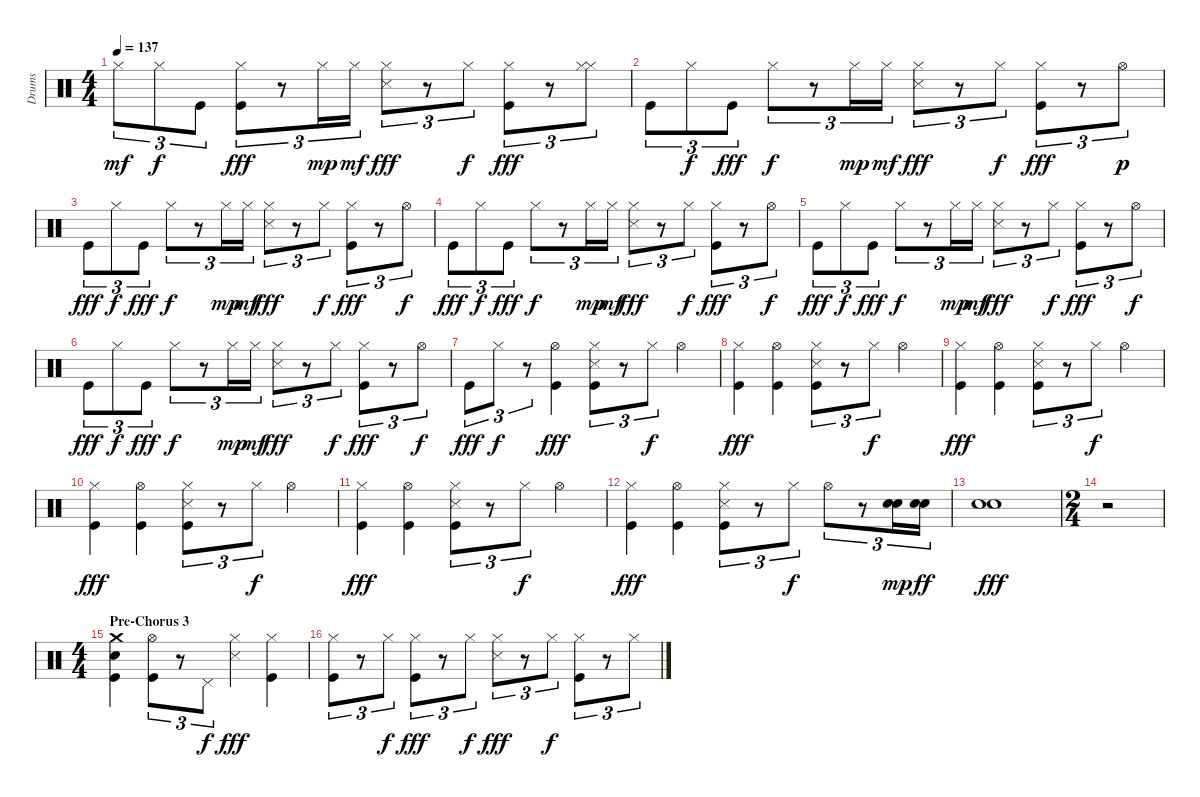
\track ("Drums" "Drums") {instrument percussion}
\staff {score}
\articulation defaults
\ts (4 4)
\tempo 137
\clef neutral
\ks c "Hi-Hat (closed)".8{tu (3 2) dy mf} "Hi-Hat (closed)".8{tu (3 2) dy f} "Kick (hit)".8{tu (3 2)}
("Hi-Hat (closed)" "Kick (hit)").8{tu (3 2) dy fff} r.8{tu (3 2)} "Hi-Hat (closed)".16{tu (3 2) dy mp} "Hi-Hat (closed)".16{tu (3 2) dy mf} ("Hi-Hat (closed)" "Snare (side stick) 3").8{tu (3 2) dy fff} r.8{tu (3 2)} "Hi-Hat (closed)".8{tu (3 2) dy f} ("Hi-Hat (closed)" "Kick (hit)").8{tu (3 2) dy fff} r.8{tu (3 2)} ("Hi-Hat (closed)" "Hi-Hat (closed)").8{tu (3 2)} |
"Kick (hit)".8{tu (3 2)} "Hi-Hat (closed)".8{tu (3 2) dy f} "Kick (hit)".8{tu (3 2) dy fff} "Hi-Hat (closed)".8{tu (3 2) dy f} r.8{tu (3 2)} "Hi-Hat (closed)".16{tu (3 2) dy mp} "Hi-Hat (closed)".16{tu (3 2) dy mf} ("Hi-Hat (closed)" "Snare (side stick) 3").8{tu (3 2) dy fff} r.8{tu (3 2)} "Hi-Hat (closed)".8{tu (3 2) dy f} ("Hi-Hat (closed)" "Kick (hit)").8{tu (3 2) dy fff} r.8{tu (3 2)} "Hi-Hat (open)".8{tu (3 2) dy p} |
"Kick (hit)".8{tu (3 2) dy fff} "Hi-Hat (closed)".8{tu (3 2) dy f} "Kick (hit)".8{tu (3 2) dy fff} "Hi-Hat (closed)".8{tu (3 2) dy f} r.8{tu (3 2)} "Hi-Hat (closed)".16{tu (3 2) dy mp} "Hi-Hat (closed)".16{tu (3 2) dy mf} ("Hi-Hat (closed)" "Snare (side stick) 3").8{tu (3 2) dy fff} r.8{tu (3 2)} "Hi-Hat (closed)".8{tu (3 2) dy f} ("Hi-Hat (closed)" "Kick (hit)").8{tu (3 2) dy fff} r.8{tu (3 2)} "Hi-Hat (open)".8{tu (3 2) dy f} |
"Kick (hit)".8{tu (3 2) dy fff} "Hi-Hat (closed)".8{tu (3 2) dy f} "Kick (hit)".8{tu (3 2) dy fff} "Hi-Hat (closed)".8{tu (3 2) dy f} r.8{tu (3 2)} "Hi-Hat (closed)".16{tu (3 2) dy mp} "Hi-Hat (closed)".16{tu (3 2) dy mf} ("Hi-Hat (closed)" "Snare (side stick) 3").8{tu (3 2) dy fff} r.8{tu (3 2)} "Hi-Hat (closed)".8{tu (3 2) dy f} ("Hi-Hat (closed)" "Kick (hit)").8{tu (3 2) dy fff} r.8{tu (3 2)} "Hi-Hat (open)".8{tu (3 2) dy f} |
"Kick (hit)".8{tu (3 2) dy fff} "Hi-Hat (closed)".8{tu (3 2) dy f} "Kick (hit)".8{tu (3 2) dy fff} "Hi-Hat (closed)".8{tu (3 2) dy f} r.8{tu (3 2)} "Hi-Hat (closed)".16{tu (3 2) dy mp} "Hi-Hat (closed)".16{tu (3 2) dy mf} ("Hi-Hat (closed)" "Snare (side stick) 3").8{tu (3 2) dy fff} r.8{tu (3 2)} "Hi-Hat (closed)".8{tu (3 2) dy f} ("Hi-Hat (closed)" "Kick (hit)").8{tu (3 2) dy fff} r.8{tu (3 2)} "Hi-Hat (open)".8{tu (3 2) dy f} |
"Kick (hit)".8{tu (3 2) dy fff} "Hi-Hat (closed)".8{tu (3 2) dy f} "Kick (hit)".8{tu (3 2) dy fff} "Hi-Hat (closed)".8{tu (3 2) dy f} r.8{tu (3 2)} "Hi-Hat (closed)".16{tu (3 2) dy mp} "Hi-Hat (closed)".16{tu (3 2) dy mf} ("Hi-Hat (closed)" "Snare (side stick) 3").8{tu (3 2) dy fff} r.8{tu (3 2)} "Hi-Hat (closed)".8{tu (3 2) dy f} ("Hi-Hat (closed)" "Kick (hit)").8{tu (3 2) dy fff} r.8{tu (3 2)} "Hi-Hat (open)".8{tu (3 2) dy f} |
"Kick (hit)".8{tu (3 2) dy fff} "Hi-Hat (closed)".8{tu (3 2) dy f} r.8{tu (3 2)} ("Hi-Hat (open)" "Kick (hit)").4{dy fff} ("Hi-Hat (closed)" "Snare (side stick) 3" "Kick (hit)").8{tu (3 2)} r.8{tu (3 2)} "Hi-Hat (closed)".8{tu (3 2) dy f} "Hi-Hat (open)".4 |
("Hi-Hat (closed)" "Kick (hit)").4{dy fff} ("Hi-Hat (open)" "Kick (hit)").4 ("Hi-Hat (closed)" "Snare (side stick) 3" "Kick (hit)").8{tu (3 2)} r.8{tu (3 2)} "Hi-Hat (closed)".8{tu (3 2) dy f} "Hi-Hat (open)".4 |
("Hi-Hat (closed)" "Kick (hit)").4{dy fff} ("Hi-Hat (open)" "Kick (hit)").4 ("Hi-Hat (closed)" "Snare (side stick) 3" "Kick (hit)").8{tu (3 2)} r.8{tu (3 2)} "Hi-Hat (closed)".8{tu (3 2) dy f} "Hi-Hat (open)".4 |
("Hi-Hat (closed)" "Kick (hit)").4{dy fff} ("Hi-Hat (open)" "Kick (hit)").4 ("Hi-Hat (closed)" "Snare (side stick) 3" "Kick (hit)").8{tu (3 2)} r.8{tu (3 2)} "Hi-Hat (closed)".8{tu (3 2) dy f} "Hi-Hat (open)".4 |
("Hi-Hat (closed)" "Kick (hit)").4{dy fff} ("Hi-Hat (open)" "Kick (hit)").4 ("Hi-Hat (closed)" "Snare (side stick) 3" "Kick (hit)").8{tu (3 2)} r.8{tu (3 2)} "Hi-Hat (closed)".8{tu (3 2) dy f} "Hi-Hat (open)".4 |
("Hi-Hat (closed)" "Kick (hit)").4{dy fff} ("Hi-Hat (open)" "Kick (hit)").4 ("Hi-Hat (closed)" "Snare (side stick) 3" "Kick (hit)").8{tu (3 2)} r.8{tu (3 2)} "Hi-Hat (closed)".8{tu (3 2) dy f} "Hi-Hat (open)".8{tu (3 2)} r.8{tu (3 2)} ("Snare (hit) 2" "Electric Snare (hit)").16{tu (3 2) dy mp volume 16} ("Snare (hit) 2" "Electric Snare (hit)").16{tu (3 2) dy ff} |
("Snare (hit) 2" "Electric Snare (hit)").1{dy fff} |
\ts (2 4)
r.2 |
\ts (4 4)
\section ("" "Pre-Chorus 3")
("Crash medium (hit)" "Snare (hit) 2" "Kick (hit)").4 ("Hi-Hat (open)" "Kick (hit)").8{tu (3 2) volume 10} r.8{tu (3 2)} "Pedal Hi-Hat (hit)".8{tu (3 2) dy f} ("Hi-Hat (closed)" "Snare (side stick) 3").4{dy fff} ("Hi-Hat (closed)" "Kick (hit)").4 |
("Hi-Hat (closed)" "Kick (hit)").8{tu (3 2)} r.8{tu (3 2)} "Hi-Hat (closed)".8{tu (3 2) dy f} ("Hi-Hat (closed)" "Kick (hit)").8{tu (3 2) dy fff} r.8{tu (3 2)} "Hi-Hat (closed)".8{tu (3 2) dy f} ("Hi-Hat (closed)" "Snare (side stick) 3").8{tu (3 2) dy fff} r.8{tu (3 2)} "Hi-Hat (closed)".8{tu (3 2) dy f} ("Hi-Hat (closed)" "Kick (hit)").8{tu (3 2)} r.8{tu (3 2)} "Hi-Hat (closed)".8{tu (3 2)}
